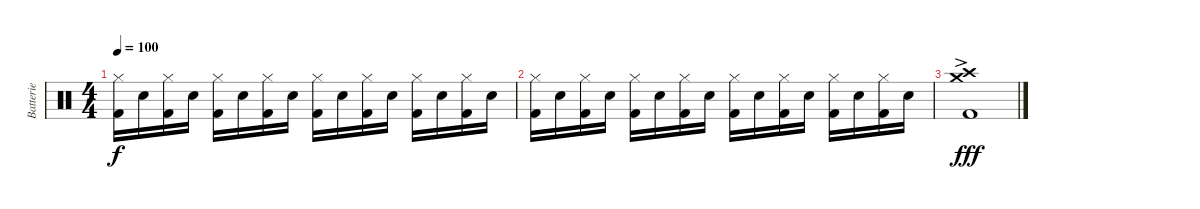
\track ("Batterie" "Batterie") {instrument percussion}
\staff {score}
\articulation defaults
\ts (4 4)
\tempo 100
\clef neutral
\ks c
("Hi-Hat (closed)" "Kick (hit) 2").16{dy f} "Snare (hit) 2".16 ("Hi-Hat (closed)" "Kick (hit) 2").16 "Snare (hit) 2".16 ("Hi-Hat (closed)" "Kick (hit) 2").16 "Snare (hit) 2".16 ("Hi-Hat (closed)" "Kick (hit) 2").16 "Snare (hit) 2".16 ("Hi-Hat (closed)" "Kick (hit) 2").16 "Snare (hit) 2".16 ("Hi-Hat (closed)" "Kick (hit) 2").16 "Snare (hit) 2".16 ("Hi-Hat (closed)" "Kick (hit) 2").16 "Snare (hit) 2".16 ("Hi-Hat (closed)" "Kick (hit) 2").16 "Snare (hit) 2".16 |
("Hi-Hat (closed)" "Kick (hit) 2").16 "Snare (hit) 2".16 ("Hi-Hat (closed)" "Kick (hit) 2").16 "Snare (hit) 2".16 ("Hi-Hat (closed)" "Kick (hit) 2").16 "Snare (hit) 2".16 ("Hi-Hat (closed)" "Kick (hit) 2").16 "Snare (hit) 2".16 ("Hi-Hat (closed)" "Kick (hit) 2").16 "Snare (hit) 2".16 ("Hi-Hat (closed)" "Kick (hit) 2").16 "Snare (hit) 2".16 ("Hi-Hat (closed)" "Kick (hit) 2").16 "Snare (hit) 2".16 ("Hi-Hat (closed)" "Kick (hit) 2").16 "Snare (hit) 2".16 |
("Crash high (hit)"{ac} "Crash medium (hit)"{ac} "Kick (hit) 2").1{dy fff}
